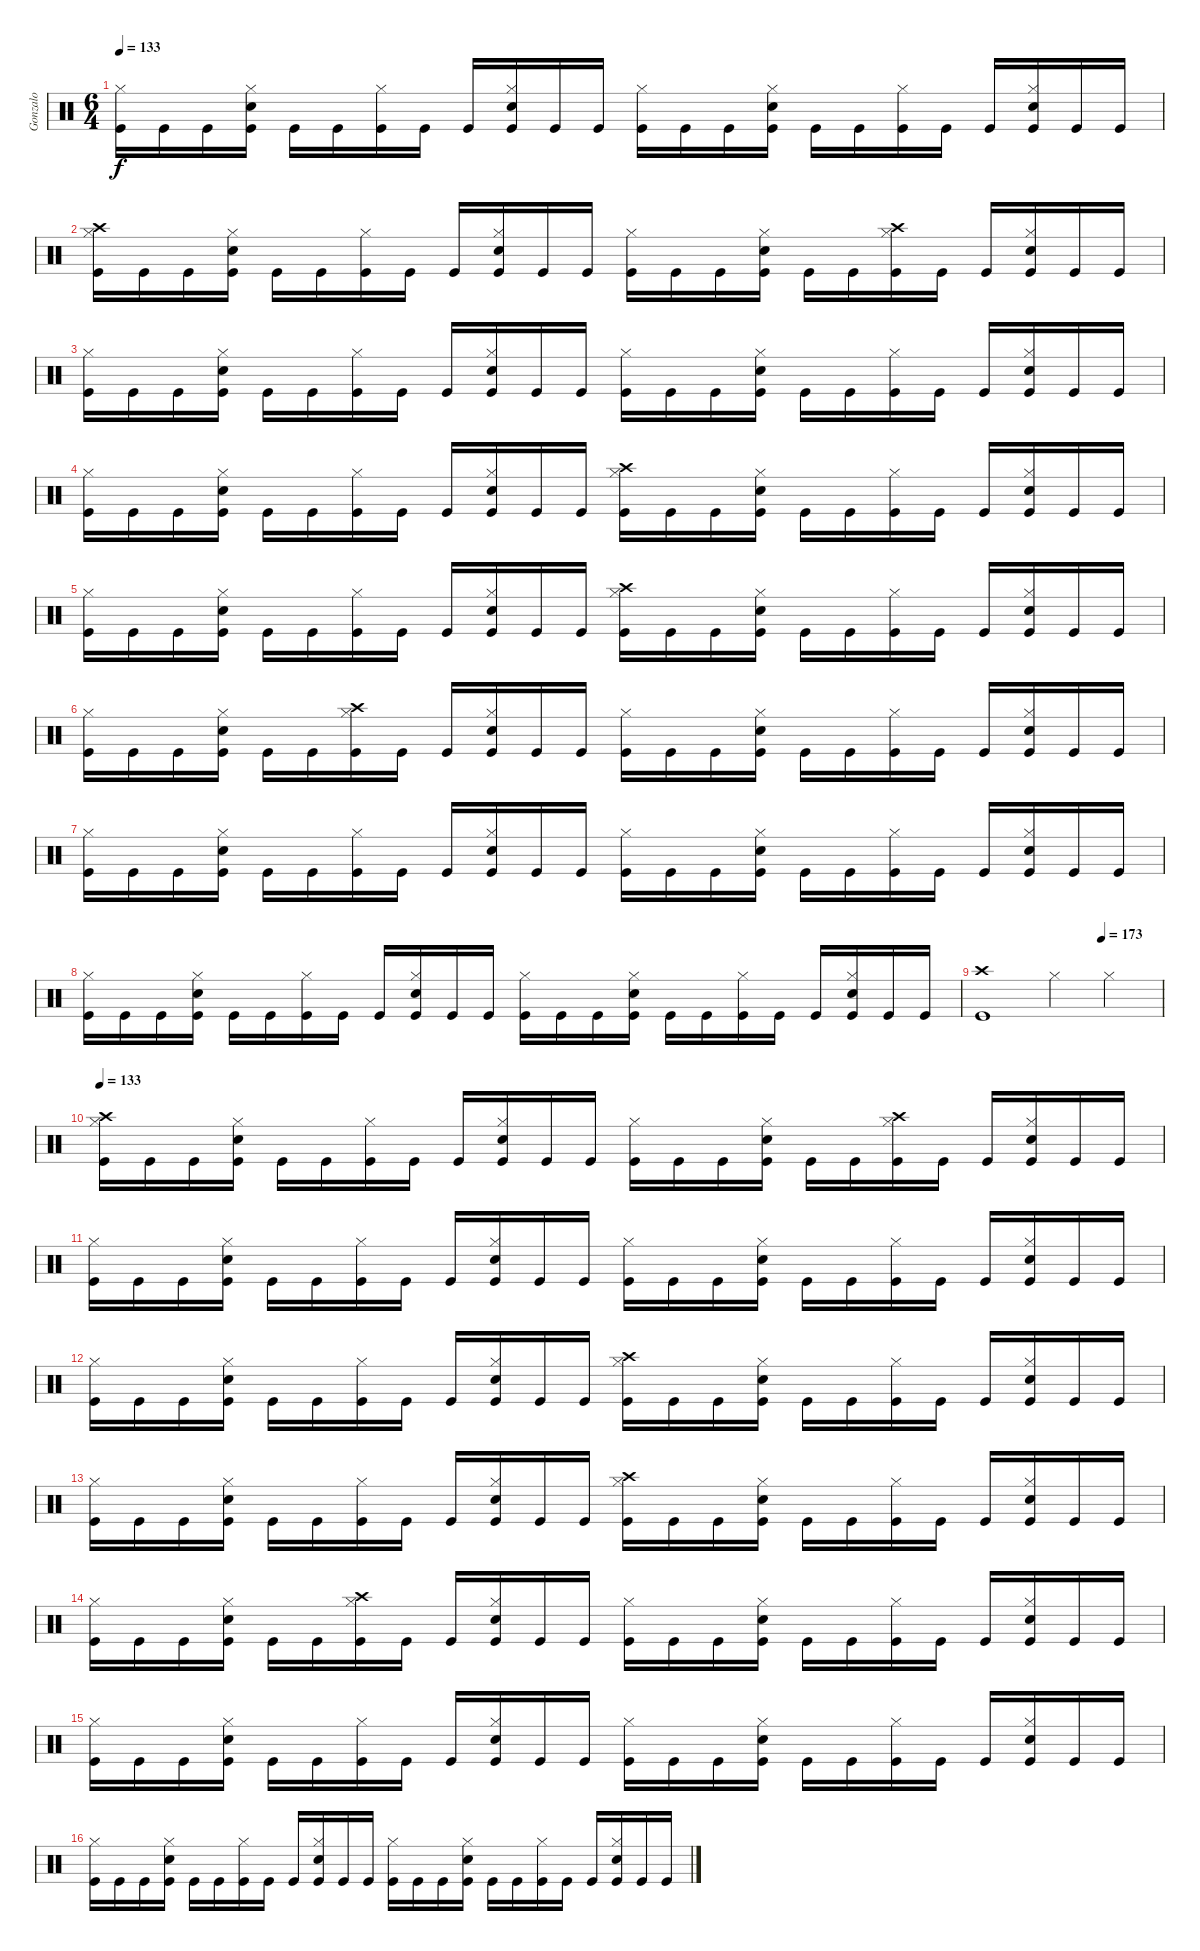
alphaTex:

\track ("Gonzalo" "Gonzalo") {instrument percussion}
\staff {score}
\articulation defaults
\ts (6 4)
\tempo 133
\clef neutral
\ks c
("Kick (hit)" "Hi-Hat (closed)").16{dy f} "Kick (hit)".16 "Kick (hit)".16 ("Kick (hit)" "Hi-Hat (closed)" "Electric Snare (hit)").16 "Kick (hit)".16 "Kick (hit)".16 ("Kick (hit)" "Hi-Hat (closed)").16 "Kick (hit)".16 "Kick (hit)".16 ("Kick (hit)" "Hi-Hat (closed)" "Electric Snare (hit)").16 "Kick (hit)".16 "Kick (hit)".16 ("Kick (hit)" "Hi-Hat (closed)").16 "Kick (hit)".16 "Kick (hit)".16 ("Kick (hit)" "Hi-Hat (closed)" "Electric Snare (hit)").16 "Kick (hit)".16 "Kick (hit)".16 ("Kick (hit)" "Hi-Hat (closed)").16 "Kick (hit)".16 "Kick (hit)".16 ("Kick (hit)" "Hi-Hat (closed)" "Electric Snare (hit)").16 "Kick (hit)".16 "Kick (hit)".16 |
("Kick (hit)" "Hi-Hat (closed)" "Crash high (hit)").16 "Kick (hit)".16 "Kick (hit)".16 ("Kick (hit)" "Hi-Hat (closed)" "Electric Snare (hit)").16 "Kick (hit)".16 "Kick (hit)".16 ("Kick (hit)" "Hi-Hat (closed)").16 "Kick (hit)".16 "Kick (hit)".16 ("Kick (hit)" "Hi-Hat (closed)" "Electric Snare (hit)").16 "Kick (hit)".16 "Kick (hit)".16 ("Kick (hit)" "Hi-Hat (closed)").16 "Kick (hit)".16 "Kick (hit)".16 ("Kick (hit)" "Hi-Hat (closed)" "Electric Snare (hit)").16 "Kick (hit)".16 "Kick (hit)".16 ("Kick (hit)" "Hi-Hat (closed)" "Crash high (hit)").16 "Kick (hit)".16 "Kick (hit)".16 ("Kick (hit)" "Hi-Hat (closed)" "Electric Snare (hit)").16 "Kick (hit)".16 "Kick (hit)".16 |
("Kick (hit)" "Hi-Hat (closed)").16 "Kick (hit)".16 "Kick (hit)".16 ("Kick (hit)" "Hi-Hat (closed)" "Electric Snare (hit)").16 "Kick (hit)".16 "Kick (hit)".16 ("Kick (hit)" "Hi-Hat (closed)").16 "Kick (hit)".16 "Kick (hit)".16 ("Kick (hit)" "Hi-Hat (closed)" "Electric Snare (hit)").16 "Kick (hit)".16 "Kick (hit)".16 ("Kick (hit)" "Hi-Hat (closed)").16 "Kick (hit)".16 "Kick (hit)".16 ("Kick (hit)" "Hi-Hat (closed)" "Electric Snare (hit)").16 "Kick (hit)".16 "Kick (hit)".16 ("Kick (hit)" "Hi-Hat (closed)").16 "Kick (hit)".16 "Kick (hit)".16 ("Kick (hit)" "Hi-Hat (closed)" "Electric Snare (hit)").16 "Kick (hit)".16 "Kick (hit)".16 |
("Kick (hit)" "Hi-Hat (closed)").16 "Kick (hit)".16 "Kick (hit)".16 ("Kick (hit)" "Hi-Hat (closed)" "Electric Snare (hit)").16 "Kick (hit)".16 "Kick (hit)".16 ("Kick (hit)" "Hi-Hat (closed)").16 "Kick (hit)".16 "Kick (hit)".16 ("Kick (hit)" "Hi-Hat (closed)" "Electric Snare (hit)").16 "Kick (hit)".16 "Kick (hit)".16 ("Kick (hit)" "Hi-Hat (closed)" "Crash high (hit)").16 "Kick (hit)".16 "Kick (hit)".16 ("Kick (hit)" "Hi-Hat (closed)" "Electric Snare (hit)").16 "Kick (hit)".16 "Kick (hit)".16 ("Kick (hit)" "Hi-Hat (closed)").16 "Kick (hit)".16 "Kick (hit)".16 ("Kick (hit)" "Hi-Hat (closed)" "Electric Snare (hit)").16 "Kick (hit)".16 "Kick (hit)".16 |
("Kick (hit)" "Hi-Hat (closed)").16 "Kick (hit)".16 "Kick (hit)".16 ("Kick (hit)" "Hi-Hat (closed)" "Electric Snare (hit)").16 "Kick (hit)".16 "Kick (hit)".16 ("Kick (hit)" "Hi-Hat (closed)").16 "Kick (hit)".16 "Kick (hit)".16 ("Kick (hit)" "Hi-Hat (closed)" "Electric Snare (hit)").16 "Kick (hit)".16 "Kick (hit)".16 ("Kick (hit)" "Hi-Hat (closed)" "Crash high (hit)").16 "Kick (hit)".16 "Kick (hit)".16 ("Kick (hit)" "Hi-Hat (closed)" "Electric Snare (hit)").16 "Kick (hit)".16 "Kick (hit)".16 ("Kick (hit)" "Hi-Hat (closed)").16 "Kick (hit)".16 "Kick (hit)".16 ("Kick (hit)" "Hi-Hat (closed)" "Electric Snare (hit)").16 "Kick (hit)".16 "Kick (hit)".16 |
("Kick (hit)" "Hi-Hat (closed)").16 "Kick (hit)".16 "Kick (hit)".16 ("Kick (hit)" "Hi-Hat (closed)" "Electric Snare (hit)").16 "Kick (hit)".16 "Kick (hit)".16 ("Kick (hit)" "Hi-Hat (closed)" "Crash high (hit)").16 "Kick (hit)".16 "Kick (hit)".16 ("Kick (hit)" "Hi-Hat (closed)" "Electric Snare (hit)").16 "Kick (hit)".16 "Kick (hit)".16 ("Kick (hit)" "Hi-Hat (closed)").16 "Kick (hit)".16 "Kick (hit)".16 ("Kick (hit)" "Hi-Hat (closed)" "Electric Snare (hit)").16 "Kick (hit)".16 "Kick (hit)".16 ("Kick (hit)" "Hi-Hat (closed)").16 "Kick (hit)".16 "Kick (hit)".16 ("Kick (hit)" "Hi-Hat (closed)" "Electric Snare (hit)").16 "Kick (hit)".16 "Kick (hit)".16 |
("Kick (hit)" "Hi-Hat (closed)").16 "Kick (hit)".16 "Kick (hit)".16 ("Kick (hit)" "Hi-Hat (closed)" "Electric Snare (hit)").16 "Kick (hit)".16 "Kick (hit)".16 ("Kick (hit)" "Hi-Hat (closed)").16 "Kick (hit)".16 "Kick (hit)".16 ("Kick (hit)" "Hi-Hat (closed)" "Electric Snare (hit)").16 "Kick (hit)".16 "Kick (hit)".16 ("Kick (hit)" "Hi-Hat (closed)").16 "Kick (hit)".16 "Kick (hit)".16 ("Kick (hit)" "Hi-Hat (closed)" "Electric Snare (hit)").16 "Kick (hit)".16 "Kick (hit)".16 ("Kick (hit)" "Hi-Hat (closed)").16 "Kick (hit)".16 "Kick (hit)".16 ("Kick (hit)" "Hi-Hat (closed)" "Electric Snare (hit)").16 "Kick (hit)".16 "Kick (hit)".16 |
("Kick (hit)" "Hi-Hat (closed)").16 "Kick (hit)".16 "Kick (hit)".16 ("Kick (hit)" "Hi-Hat (closed)" "Electric Snare (hit)").16 "Kick (hit)".16 "Kick (hit)".16 ("Kick (hit)" "Hi-Hat (closed)").16 "Kick (hit)".16 "Kick (hit)".16 ("Kick (hit)" "Hi-Hat (closed)" "Electric Snare (hit)").16 "Kick (hit)".16 "Kick (hit)".16 ("Kick (hit)" "Hi-Hat (closed)").16 "Kick (hit)".16 "Kick (hit)".16 ("Kick (hit)" "Hi-Hat (closed)" "Electric Snare (hit)").16 "Kick (hit)".16 "Kick (hit)".16 ("Kick (hit)" "Hi-Hat (closed)").16 "Kick (hit)".16 "Kick (hit)".16 ("Kick (hit)" "Hi-Hat (closed)" "Electric Snare (hit)").16 "Kick (hit)".16 "Kick (hit)".16 |
\tempo (173 0.6666666666666666)
("Kick (hit)" "Crash high (hit)").1 "Hi-Hat (closed)".4 "Hi-Hat (closed)".4 |
\tempo 133
("Kick (hit)" "Hi-Hat (closed)" "Crash high (hit)").16 "Kick (hit)".16 "Kick (hit)".16 ("Kick (hit)" "Hi-Hat (closed)" "Electric Snare (hit)").16 "Kick (hit)".16 "Kick (hit)".16 ("Kick (hit)" "Hi-Hat (closed)").16 "Kick (hit)".16 "Kick (hit)".16 ("Kick (hit)" "Hi-Hat (closed)" "Electric Snare (hit)").16 "Kick (hit)".16 "Kick (hit)".16 ("Kick (hit)" "Hi-Hat (closed)").16 "Kick (hit)".16 "Kick (hit)".16 ("Kick (hit)" "Hi-Hat (closed)" "Electric Snare (hit)").16 "Kick (hit)".16 "Kick (hit)".16 ("Kick (hit)" "Hi-Hat (closed)" "Crash high (hit)").16 "Kick (hit)".16 "Kick (hit)".16 ("Kick (hit)" "Hi-Hat (closed)" "Electric Snare (hit)").16 "Kick (hit)".16 "Kick (hit)".16 |
("Kick (hit)" "Hi-Hat (closed)").16 "Kick (hit)".16 "Kick (hit)".16 ("Kick (hit)" "Hi-Hat (closed)" "Electric Snare (hit)").16 "Kick (hit)".16 "Kick (hit)".16 ("Kick (hit)" "Hi-Hat (closed)").16 "Kick (hit)".16 "Kick (hit)".16 ("Kick (hit)" "Hi-Hat (closed)" "Electric Snare (hit)").16 "Kick (hit)".16 "Kick (hit)".16 ("Kick (hit)" "Hi-Hat (closed)").16 "Kick (hit)".16 "Kick (hit)".16 ("Kick (hit)" "Hi-Hat (closed)" "Electric Snare (hit)").16 "Kick (hit)".16 "Kick (hit)".16 ("Kick (hit)" "Hi-Hat (closed)").16 "Kick (hit)".16 "Kick (hit)".16 ("Kick (hit)" "Hi-Hat (closed)" "Electric Snare (hit)").16 "Kick (hit)".16 "Kick (hit)".16 |
("Kick (hit)" "Hi-Hat (closed)").16 "Kick (hit)".16 "Kick (hit)".16 ("Kick (hit)" "Hi-Hat (closed)" "Electric Snare (hit)").16 "Kick (hit)".16 "Kick (hit)".16 ("Kick (hit)" "Hi-Hat (closed)").16 "Kick (hit)".16 "Kick (hit)".16 ("Kick (hit)" "Hi-Hat (closed)" "Electric Snare (hit)").16 "Kick (hit)".16 "Kick (hit)".16 ("Kick (hit)" "Hi-Hat (closed)" "Crash high (hit)").16 "Kick (hit)".16 "Kick (hit)".16 ("Kick (hit)" "Hi-Hat (closed)" "Electric Snare (hit)").16 "Kick (hit)".16 "Kick (hit)".16 ("Kick (hit)" "Hi-Hat (closed)").16 "Kick (hit)".16 "Kick (hit)".16 ("Kick (hit)" "Hi-Hat (closed)" "Electric Snare (hit)").16 "Kick (hit)".16 "Kick (hit)".16 |
("Kick (hit)" "Hi-Hat (closed)").16 "Kick (hit)".16 "Kick (hit)".16 ("Kick (hit)" "Hi-Hat (closed)" "Electric Snare (hit)").16 "Kick (hit)".16 "Kick (hit)".16 ("Kick (hit)" "Hi-Hat (closed)").16 "Kick (hit)".16 "Kick (hit)".16 ("Kick (hit)" "Hi-Hat (closed)" "Electric Snare (hit)").16 "Kick (hit)".16 "Kick (hit)".16 ("Kick (hit)" "Hi-Hat (closed)" "Crash high (hit)").16 "Kick (hit)".16 "Kick (hit)".16 ("Kick (hit)" "Hi-Hat (closed)" "Electric Snare (hit)").16 "Kick (hit)".16 "Kick (hit)".16 ("Kick (hit)" "Hi-Hat (closed)").16 "Kick (hit)".16 "Kick (hit)".16 ("Kick (hit)" "Hi-Hat (closed)" "Electric Snare (hit)").16 "Kick (hit)".16 "Kick (hit)".16 |
("Kick (hit)" "Hi-Hat (closed)").16 "Kick (hit)".16 "Kick (hit)".16 ("Kick (hit)" "Hi-Hat (closed)" "Electric Snare (hit)").16 "Kick (hit)".16 "Kick (hit)".16 ("Kick (hit)" "Hi-Hat (closed)" "Crash high (hit)").16 "Kick (hit)".16 "Kick (hit)".16 ("Kick (hit)" "Hi-Hat (closed)" "Electric Snare (hit)").16 "Kick (hit)".16 "Kick (hit)".16 ("Kick (hit)" "Hi-Hat (closed)").16 "Kick (hit)".16 "Kick (hit)".16 ("Kick (hit)" "Hi-Hat (closed)" "Electric Snare (hit)").16 "Kick (hit)".16 "Kick (hit)".16 ("Kick (hit)" "Hi-Hat (closed)").16 "Kick (hit)".16 "Kick (hit)".16 ("Kick (hit)" "Hi-Hat (closed)" "Electric Snare (hit)").16 "Kick (hit)".16 "Kick (hit)".16 |
("Kick (hit)" "Hi-Hat (closed)").16 "Kick (hit)".16 "Kick (hit)".16 ("Kick (hit)" "Hi-Hat (closed)" "Electric Snare (hit)").16 "Kick (hit)".16 "Kick (hit)".16 ("Kick (hit)" "Hi-Hat (closed)").16 "Kick (hit)".16 "Kick (hit)".16 ("Kick (hit)" "Hi-Hat (closed)" "Electric Snare (hit)").16 "Kick (hit)".16 "Kick (hit)".16 ("Kick (hit)" "Hi-Hat (closed)").16 "Kick (hit)".16 "Kick (hit)".16 ("Kick (hit)" "Hi-Hat (closed)" "Electric Snare (hit)").16 "Kick (hit)".16 "Kick (hit)".16 ("Kick (hit)" "Hi-Hat (closed)").16 "Kick (hit)".16 "Kick (hit)".16 ("Kick (hit)" "Hi-Hat (closed)" "Electric Snare (hit)").16 "Kick (hit)".16 "Kick (hit)".16 |
("Kick (hit)" "Hi-Hat (closed)").16 "Kick (hit)".16 "Kick (hit)".16 ("Kick (hit)" "Hi-Hat (closed)" "Electric Snare (hit)").16 "Kick (hit)".16 "Kick (hit)".16 ("Kick (hit)" "Hi-Hat (closed)").16 "Kick (hit)".16 "Kick (hit)".16 ("Kick (hit)" "Hi-Hat (closed)" "Electric Snare (hit)").16 "Kick (hit)".16 "Kick (hit)".16 ("Kick (hit)" "Hi-Hat (closed)").16 "Kick (hit)".16 "Kick (hit)".16 ("Kick (hit)" "Hi-Hat (closed)" "Electric Snare (hit)").16 "Kick (hit)".16 "Kick (hit)".16 ("Kick (hit)" "Hi-Hat (closed)").16 "Kick (hit)".16 "Kick (hit)".16 ("Kick (hit)" "Hi-Hat (closed)" "Electric Snare (hit)").16 "Kick (hit)".16 "Kick (hit)".16
